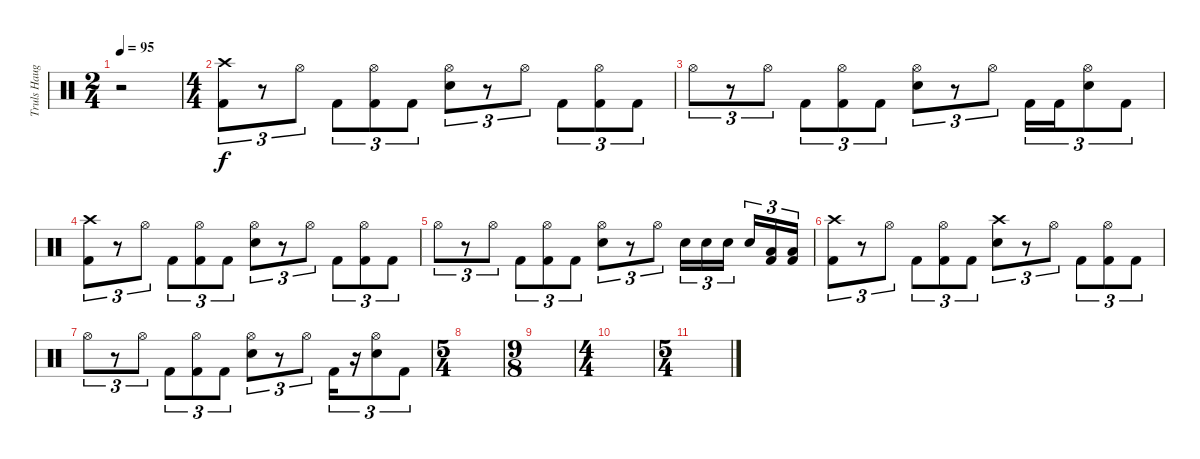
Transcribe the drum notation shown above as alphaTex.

\track ("Truls Haugen" "Truls Haug") {instrument percussion}
\staff {score}
\articulation defaults
\ts (2 4)
\tempo 95
\clef neutral
\ks c
r.2{dy f} |
\ts (4 4)
("Crash high (hit)" "Kick (hit) 2").8{tu (3 2)} r.8{tu (3 2)} "Hi-Hat (open)".8{tu (3 2)} "Kick (hit) 2".8{tu (3 2)} ("Hi-Hat (open)" "Kick (hit) 2").8{tu (3 2)} "Kick (hit) 2".8{tu (3 2)} ("Hi-Hat (open)" "Electric Snare (hit)").8{tu (3 2)} r.8{tu (3 2)} "Hi-Hat (open)".8{tu (3 2)} "Kick (hit) 2".8{tu (3 2)} ("Hi-Hat (open)" "Kick (hit) 2").8{tu (3 2)} "Kick (hit) 2".8{tu (3 2)} |
"Hi-Hat (open)".8{tu (3 2)} r.8{tu (3 2)} "Hi-Hat (open)".8{tu (3 2)} "Kick (hit) 2".8{tu (3 2)} ("Hi-Hat (open)" "Kick (hit) 2").8{tu (3 2)} "Kick (hit) 2".8{tu (3 2)} ("Hi-Hat (open)" "Electric Snare (hit)").8{tu (3 2)} r.8{tu (3 2)} "Hi-Hat (open)".8{tu (3 2)} "Kick (hit) 2".16{tu (3 2)} "Kick (hit) 2".16{tu (3 2)} ("Hi-Hat (open)" "Electric Snare (hit)").8{tu (3 2)} "Kick (hit) 2".8{tu (3 2)} |
("Crash high (hit)" "Kick (hit) 2").8{tu (3 2)} r.8{tu (3 2)} "Hi-Hat (open)".8{tu (3 2)} "Kick (hit) 2".8{tu (3 2)} ("Hi-Hat (open)" "Kick (hit) 2").8{tu (3 2)} "Kick (hit) 2".8{tu (3 2)} ("Hi-Hat (open)" "Electric Snare (hit)").8{tu (3 2)} r.8{tu (3 2)} "Hi-Hat (open)".8{tu (3 2)} "Kick (hit) 2".8{tu (3 2)} ("Hi-Hat (open)" "Kick (hit) 2").8{tu (3 2)} "Kick (hit) 2".8{tu (3 2)} |
"Hi-Hat (open)".8{tu (3 2)} r.8{tu (3 2)} "Hi-Hat (open)".8{tu (3 2)} "Kick (hit) 2".8{tu (3 2)} ("Hi-Hat (open)" "Kick (hit) 2").8{tu (3 2)} "Kick (hit) 2".8{tu (3 2)} ("Hi-Hat (open)" "Electric Snare (hit)").8{tu (3 2)} r.8{tu (3 2)} "Hi-Hat (open)".8{tu (3 2)} "Electric Snare (hit)".16{tu (3 2)} "Electric Snare (hit)".16{tu (3 2)} "Electric Snare (hit)".16{tu (3 2)} "Electric Snare (hit)".16{tu (3 2)} ("Low Tom (hit)" "Kick (hit) 2").16{tu (3 2)} ("Low Floor Tom (hit)" "Kick (hit) 2").16{tu (3 2)} |
("Crash high (hit)" "Kick (hit) 2").8{tu (3 2)} r.8{tu (3 2)} "Hi-Hat (open)".8{tu (3 2)} "Kick (hit) 2".8{tu (3 2)} ("Hi-Hat (open)" "Kick (hit) 2").8{tu (3 2)} "Kick (hit) 2".8{tu (3 2)} ("Crash high (hit)" "Electric Snare (hit)").8{tu (3 2)} r.8{tu (3 2)} "Hi-Hat (open)".8{tu (3 2)} "Kick (hit) 2".8{tu (3 2)} ("Hi-Hat (open)" "Kick (hit) 2").8{tu (3 2)} "Kick (hit) 2".8{tu (3 2)} |
"Hi-Hat (open)".8{tu (3 2)} r.8{tu (3 2)} "Hi-Hat (open)".8{tu (3 2)} "Kick (hit) 2".8{tu (3 2)} ("Hi-Hat (open)" "Kick (hit) 2").8{tu (3 2)} "Kick (hit) 2".8{tu (3 2)} ("Hi-Hat (open)" "Electric Snare (hit)").8{tu (3 2)} r.8{tu (3 2)} "Hi-Hat (open)".8{tu (3 2)} "Kick (hit) 2".16{tu (3 2)} r.16{tu (3 2)} ("Hi-Hat (open)" "Electric Snare (hit)").8{tu (3 2)} "Kick (hit) 2".8{tu (3 2)} |
\ts (5 4)
|
\ts (9 8)
|
\ts (4 4)
|
\ts (5 4)
